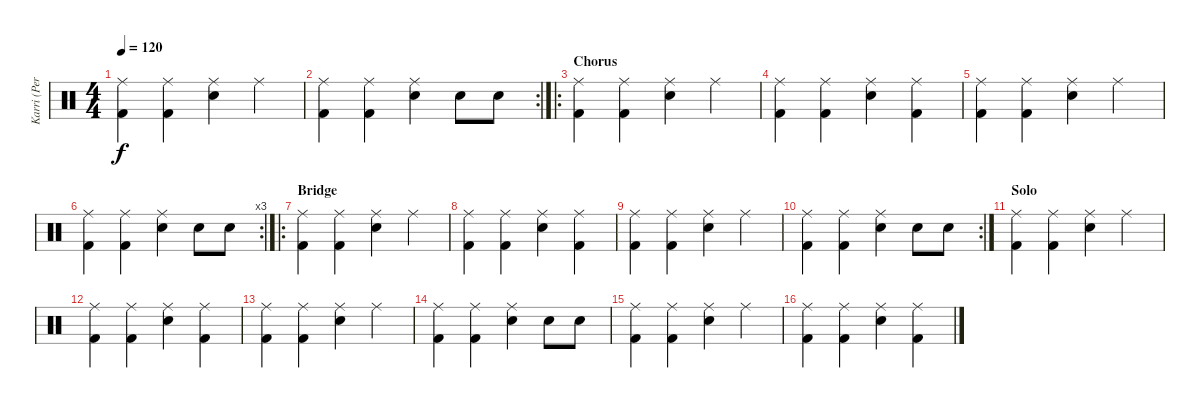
\track ("Karri (Percussion)" "Karri (Per") {instrument percussion}
\staff {score}
\articulation defaults
\ts (4 4)
\tempo 120
\clef neutral
\ks c
("Ride (middle)" "Kick (hit) 2").4{dy f} ("Ride (middle)" "Kick (hit) 2").4 ("Ride (middle)" "Snare (hit) 2").4 "Ride (middle)".4 |
\rc 2
("Ride (middle)" "Kick (hit) 2").4 ("Ride (middle)" "Kick (hit) 2").4 ("Ride (middle)" "Snare (hit) 2").4 "Snare (hit) 2".8 "Snare (hit) 2".8 |
\ro
\section ("" "Chorus")
("Ride (middle)" "Kick (hit) 2").4 ("Ride (middle)" "Kick (hit) 2").4 ("Ride (middle)" "Snare (hit) 2").4 "Ride (middle)".4 |
("Ride (middle)" "Kick (hit) 2").4 ("Ride (middle)" "Kick (hit) 2").4 ("Ride (middle)" "Snare (hit) 2").4 ("Ride (middle)" "Kick (hit) 2").4 |
("Ride (middle)" "Kick (hit) 2").4 ("Ride (middle)" "Kick (hit) 2").4 ("Ride (middle)" "Snare (hit) 2").4 "Ride (middle)".4 |
\rc 3
("Ride (middle)" "Kick (hit) 2").4 ("Ride (middle)" "Kick (hit) 2").4 ("Ride (middle)" "Snare (hit) 2").4 "Snare (hit) 2".8 "Snare (hit) 2".8 |
\ro
\section ("" "Bridge")
("Ride (middle)" "Kick (hit) 2").4 ("Ride (middle)" "Kick (hit) 2").4 ("Ride (middle)" "Snare (hit) 2").4 "Ride (middle)".4 |
("Ride (middle)" "Kick (hit) 2").4 ("Ride (middle)" "Kick (hit) 2").4 ("Ride (middle)" "Snare (hit) 2").4 ("Ride (middle)" "Kick (hit) 2").4 |
("Ride (middle)" "Kick (hit) 2").4 ("Ride (middle)" "Kick (hit) 2").4 ("Ride (middle)" "Snare (hit) 2").4 "Ride (middle)".4 |
\rc 2
("Ride (middle)" "Kick (hit) 2").4 ("Ride (middle)" "Kick (hit) 2").4 ("Ride (middle)" "Snare (hit) 2").4 "Snare (hit) 2".8 "Snare (hit) 2".8 |
\section ("" "Solo")
("Ride (middle)" "Kick (hit) 2").4 ("Ride (middle)" "Kick (hit) 2").4 ("Ride (middle)" "Snare (hit) 2").4 "Ride (middle)".4 |
("Ride (middle)" "Kick (hit) 2").4 ("Ride (middle)" "Kick (hit) 2").4 ("Ride (middle)" "Snare (hit) 2").4 ("Ride (middle)" "Kick (hit) 2").4 |
("Ride (middle)" "Kick (hit) 2").4 ("Ride (middle)" "Kick (hit) 2").4 ("Ride (middle)" "Snare (hit) 2").4 "Ride (middle)".4 |
("Ride (middle)" "Kick (hit) 2").4 ("Ride (middle)" "Kick (hit) 2").4 ("Ride (middle)" "Snare (hit) 2").4 "Snare (hit) 2".8 "Snare (hit) 2".8 |
("Ride (middle)" "Kick (hit) 2").4 ("Ride (middle)" "Kick (hit) 2").4 ("Ride (middle)" "Snare (hit) 2").4 "Ride (middle)".4 |
("Ride (middle)" "Kick (hit) 2").4 ("Ride (middle)" "Kick (hit) 2").4 ("Ride (middle)" "Snare (hit) 2").4 ("Ride (middle)" "Kick (hit) 2").4
